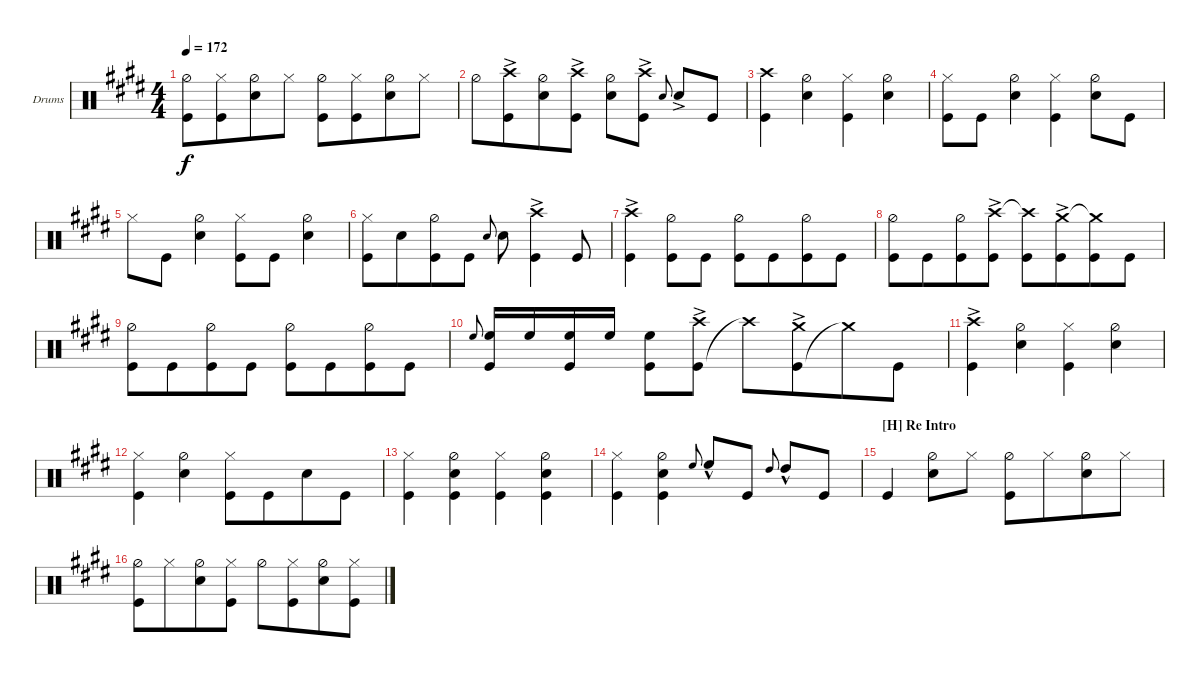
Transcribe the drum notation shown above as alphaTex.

\bracketExtendMode groupsimilarinstruments
\firstSystemTrackNameOrientation horizontal
\otherSystemsTrackNameOrientation horizontal
\track ("Drums" "Drums") {instrument percussion}
\staff {score}
\articulation defaults
\ts (4 4)
\tempo 172
\clef neutral
\scale
0.333333
\ks e
("Hi-Hat (half)" "Kick (hit)").8{dy f} ("Hi-Hat (closed)" "Kick (hit)").8{beam merge} ("Hi-Hat (half)" "Snare (hit) 2").8 "Hi-Hat (closed)".8 ("Hi-Hat (half)" "Kick (hit)").8 ("Hi-Hat (closed)" "Kick (hit)").8{beam merge} ("Hi-Hat (half)" "Snare (hit) 2").8 "Hi-Hat (closed)".8 |
\scale
0.333333 "Hi-Hat (half)".8 ("Kick (hit)" "Crash high (hit)"{ac}).8{beam merge} ("Hi-Hat (half)" "Snare (hit) 2").8 ("Kick (hit)" "Crash high (hit)"{ac}).8 ("Hi-Hat (half)" "Snare (hit) 2").8 ("Kick (hit)" "Crash high (hit)"{ac}).8 "Snare (hit) 2".8{gr onbeat} "Snare (hit) 2"{ac}.8 "Kick (hit)".8 |
\scale
0.333333 ("Kick (hit)" "Crash high (hit)").4 ("Snare (hit) 2" "Hi-Hat (half)").4 ("Kick (hit)" "Hi-Hat (closed)").4 ("Snare (hit) 2" "Hi-Hat (half)").4 |
\scale
0.333333 ("Kick (hit)" "Hi-Hat (closed)").8 "Kick (hit)".8 ("Snare (hit) 2" "Hi-Hat (half)").4 ("Kick (hit)" "Hi-Hat (closed)").4 ("Snare (hit) 2" "Hi-Hat (half)").8 "Kick (hit)".8 |
\scale
0.333333 "Hi-Hat (closed)".8 "Kick (hit)".8 ("Snare (hit) 2" "Hi-Hat (half)").4 ("Kick (hit)" "Hi-Hat (closed)").8 "Kick (hit)".8 ("Snare (hit) 2" "Hi-Hat (half)").4 |
\scale
0.333333 ("Kick (hit)" "Hi-Hat (closed)").8 "Snare (hit) 2".8{beam merge} ("Kick (hit)" "Hi-Hat (half)").8 "Kick (hit)".8 "Snare (hit) 2".8{gr onbeat} "Snare (hit) 2".8 ("Kick (hit)" "Crash high (hit)"{ac}).4 "Kick (hit)".8 |
\scale
0.333333 ("Kick (hit)" "Crash high (hit)"{ac}).4 ("Kick (hit)" "Hi-Hat (half)").8 "Kick (hit)".8 ("Kick (hit)" "Hi-Hat (half)").8 "Kick (hit)".8{beam merge} ("Kick (hit)" "Hi-Hat (half)").8{beam merge} "Kick (hit)".8 |
\scale
0.333333 ("Kick (hit)" "Hi-Hat (half)").8 "Kick (hit)".8{beam merge} ("Kick (hit)" "Hi-Hat (half)").8 ("Kick (hit)" "Crash high (hit)"{ac}).8 ("Kick (hit)" "Crash high (hit)"{t}).8 ("Kick (hit)" "Crash medium (hit)"{ac}).8{beam merge} ("Kick (hit)" "Crash medium (hit)"{t}).8 "Kick (hit)".8 |
\scale
0.333333 ("Kick (hit)" "Hi-Hat (half)").8 "Kick (hit)".8{beam merge} ("Kick (hit)" "Hi-Hat (half)").8 "Kick (hit)".8 ("Kick (hit)" "Hi-Hat (half)").8 "Kick (hit)".8{beam merge} ("Kick (hit)" "Hi-Hat (half)").8 "Kick (hit)".8 |
\scale
0.333333 "High Floor Tom (hit)".8{gr onbeat} ("Kick (hit)" "High Floor Tom (hit)").16 "High Floor Tom (hit)".16 ("Kick (hit)" "High Floor Tom (hit)").16 "High Floor Tom (hit)".16 ("Kick (hit)" "High Floor Tom (hit)").8 ("Kick (hit)" "Crash high (hit)"{ac}).8 "Crash high (hit)"{t}.8 ("Kick (hit)" "Crash medium (hit)"{ac}).8{beam merge} "Crash medium (hit)"{t}.8 "Kick (hit)".8 |
\scale
0.333333 ("Kick (hit)" "Crash high (hit)"{ac}).4 ("Snare (hit) 2" "Hi-Hat (half)").4 ("Kick (hit)" "Hi-Hat (closed)").4 ("Snare (hit) 2" "Hi-Hat (half)").4 |
\scale
0.333333 ("Kick (hit)" "Hi-Hat (closed)").4 ("Snare (hit) 2" "Hi-Hat (half)").4 ("Kick (hit)" "Hi-Hat (closed)").8 "Kick (hit)".8{beam merge} "Snare (hit) 2".8 "Kick (hit)".8 |
\scale
0.333333 ("Kick (hit)" "Hi-Hat (closed)").4 ("Kick (hit)" "Snare (hit) 2" "Hi-Hat (half)").4 ("Kick (hit)" "Hi-Hat (closed)").4 ("Kick (hit)" "Snare (hit) 2" "Hi-Hat (half)").4 |
\scale
0.333333 ("Kick (hit)" "Hi-Hat (closed)").4 ("Kick (hit)" "Snare (hit) 2" "Hi-Hat (half)").4 "High Floor Tom (hit)".8{gr onbeat} "High Floor Tom (hit)"{hac}.8 "Kick (hit)".8 "High Tom (hit)".8{gr onbeat} "High Tom (hit)"{hac}.8 "Kick (hit)".8 |
\section ("H" "Re Intro")
\scale
0.333333 "Kick (hit)".4 ("Snare (hit) 2" "Hi-Hat (half)").8 "Hi-Hat (closed)".8 ("Hi-Hat (half)" "Kick (hit)").8 "Hi-Hat (closed)".8{beam merge} ("Hi-Hat (half)" "Snare (hit) 2").8 "Hi-Hat (closed)".8 |
\scale
0.333333 ("Hi-Hat (half)" "Kick (hit)").8{beam merge} "Hi-Hat (closed)".8{beam merge} ("Hi-Hat (half)" "Snare (hit) 2").8 ("Hi-Hat (closed)" "Kick (hit)").8 "Hi-Hat (half)".8 ("Hi-Hat (closed)" "Kick (hit)").8{beam merge} ("Hi-Hat (half)" "Snare (hit) 2").8 ("Hi-Hat (closed)" "Kick (hit)").8
